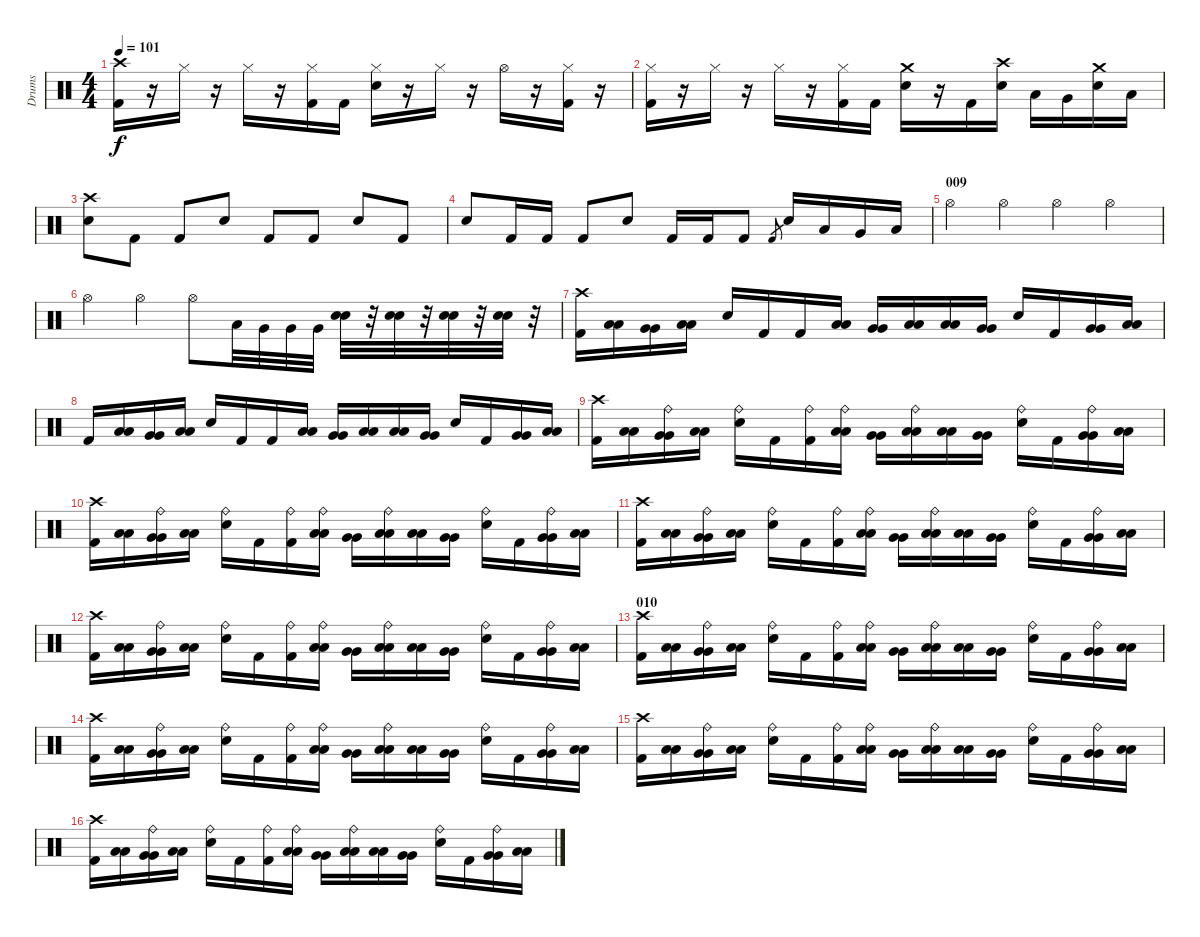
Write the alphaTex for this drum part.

\track ("Drums" "Drums") {instrument percussion}
\staff {score}
\articulation defaults
\ts (4 4)
\tempo 101
\clef neutral
\ks c
("Kick (hit) 2" "Crash high (hit)").16{dy f} r.16 "Hi-Hat (closed)".16 r.16 "Hi-Hat (closed)".16 r.16 ("Kick (hit) 2" "Hi-Hat (closed)").16 "Kick (hit) 2".16 ("Electric Snare (hit)" "Hi-Hat (closed)").16 r.16 "Hi-Hat (closed)".16 r.16 "Hi-Hat (open)".16 r.16 ("Kick (hit) 2" "Hi-Hat (closed)").16 r.16 |
("Kick (hit) 2" "Hi-Hat (closed)").16 r.16 "Hi-Hat (closed)".16 r.16 "Hi-Hat (closed)".16 r.16 ("Kick (hit) 2" "Hi-Hat (closed)").16 "Kick (hit) 2".16 ("Electric Snare (hit)" "Crash medium (hit)").16 r.16 "Kick (hit) 2".16 ("Electric Snare (hit)" "Crash high (hit)").16 "Low Floor Tom (hit)".16 "Very Low Tom (hit)".16 ("Electric Snare (hit)" "Crash medium (hit)").16 "Low Tom (hit)".16 |
("Electric Snare (hit)" "Crash high (hit)").8 "Kick (hit) 2".8 "Kick (hit) 2".8 "Electric Snare (hit)".8 "Kick (hit) 2".8 "Kick (hit) 2".8 "Electric Snare (hit)".8 "Kick (hit) 2".8 |
"Electric Snare (hit)".8 "Kick (hit) 2".16 "Kick (hit) 2".16 "Kick (hit) 2".8 "Electric Snare (hit)".8 "Kick (hit) 2".16 "Kick (hit) 2".16 "Kick (hit) 2".8 "Kick (hit) 2".8{gr} "Electric Snare (hit)".16 "Low Tom (hit)".16 "Very Low Tom (hit)".16 "Low Floor Tom (hit)".16 |
\section ("" "009")
"Hi-Hat (open)".4 "Hi-Hat (open)".4 "Hi-Hat (open)".4 "Hi-Hat (open)".4 |
"Hi-Hat (open)".4 "Hi-Hat (open)".4 "Hi-Hat (open)".8 "Low Floor Tom (hit)".32 "Very Low Tom (hit)".32 "Very Low Tom (hit)".32 "Very Low Tom (hit)".32 ("Electric Snare (hit)" "Snare (hit) 2").32 r.32 ("Electric Snare (hit)" "Snare (hit) 2").32 r.32 ("Electric Snare (hit)" "Snare (hit) 2").32 r.32 ("Electric Snare (hit)" "Snare (hit) 2").32 r.32 |
("Kick (hit) 2" "Crash high (hit)").16 ("Low Tom (hit)" "Low Tom (hit)").16 ("Very Low Tom (hit)" "Very Low Tom (hit)").16 ("Low Floor Tom (hit)" "Low Floor Tom (hit)").16 "Electric Snare (hit)".16 "Kick (hit) 2".16 "Kick (hit) 2".16 ("Low Tom (hit)" "Low Tom (hit)").16 ("Very Low Tom (hit)" "Very Low Tom (hit)").16 ("Low Floor Tom (hit)" "Low Floor Tom (hit)").16 ("Low Tom (hit)" "Low Tom (hit)").16 ("Very Low Tom (hit)" "Very Low Tom (hit)").16 "Electric Snare (hit)".16 "Kick (hit) 2".16 ("Very Low Tom (hit)" "Very Low Tom (hit)").16 ("Low Tom (hit)" "Low Tom (hit)").16 |
"Kick (hit) 2".16 ("Low Tom (hit)" "Low Tom (hit)").16 ("Very Low Tom (hit)" "Very Low Tom (hit)").16 ("Low Floor Tom (hit)" "Low Floor Tom (hit)").16 "Electric Snare (hit)".16 "Kick (hit) 2".16 "Kick (hit) 2".16 ("Low Tom (hit)" "Low Tom (hit)").16 ("Very Low Tom (hit)" "Very Low Tom (hit)").16 ("Low Floor Tom (hit)" "Low Floor Tom (hit)").16 ("Low Tom (hit)" "Low Tom (hit)").16 ("Very Low Tom (hit)" "Very Low Tom (hit)").16 "Electric Snare (hit)".16 "Kick (hit) 2".16 ("Very Low Tom (hit)" "Very Low Tom (hit)").16 ("Low Tom (hit)" "Low Floor Tom (hit)").16 |
("Kick (hit) 2" "Crash high (hit)").16 ("Low Tom (hit)" "Low Tom (hit)").16 ("Very Low Tom (hit)" "Very Low Tom (hit)" "Ride (bell)").16 ("Low Floor Tom (hit)" "Low Floor Tom (hit)").16 ("Electric Snare (hit)" "Ride (bell)").16 "Kick (hit) 2".16 ("Kick (hit) 2" "Ride (bell)").16 ("Low Tom (hit)" "Low Tom (hit)" "Ride (bell)").16 ("Very Low Tom (hit)" "Very Low Tom (hit)").16 ("Low Floor Tom (hit)" "Low Floor Tom (hit)" "Ride (bell)").16 ("Low Tom (hit)" "Low Tom (hit)").16 ("Very Low Tom (hit)" "Very Low Tom (hit)").16 ("Electric Snare (hit)" "Ride (bell)").16 "Kick (hit) 2".16 ("Very Low Tom (hit)" "Very Low Tom (hit)" "Ride (bell)").16 ("Low Tom (hit)" "Low Tom (hit)").16 |
("Kick (hit) 2" "Crash high (hit)").16 ("Low Tom (hit)" "Low Tom (hit)").16 ("Very Low Tom (hit)" "Very Low Tom (hit)" "Ride (bell)").16 ("Low Floor Tom (hit)" "Low Floor Tom (hit)").16 ("Electric Snare (hit)" "Ride (bell)").16 "Kick (hit) 2".16 ("Kick (hit) 2" "Ride (bell)").16 ("Low Tom (hit)" "Low Tom (hit)" "Ride (bell)").16 ("Very Low Tom (hit)" "Very Low Tom (hit)").16 ("Low Floor Tom (hit)" "Low Floor Tom (hit)" "Ride (bell)").16 ("Low Tom (hit)" "Low Tom (hit)").16 ("Very Low Tom (hit)" "Very Low Tom (hit)").16 ("Electric Snare (hit)" "Ride (bell)").16 "Kick (hit) 2".16 ("Very Low Tom (hit)" "Very Low Tom (hit)" "Ride (bell)").16 ("Low Tom (hit)" "Low Tom (hit)").16 |
("Kick (hit) 2" "Crash high (hit)").16 ("Low Tom (hit)" "Low Tom (hit)").16 ("Very Low Tom (hit)" "Very Low Tom (hit)" "Ride (bell)").16 ("Low Floor Tom (hit)" "Low Floor Tom (hit)").16 ("Electric Snare (hit)" "Ride (bell)").16 "Kick (hit) 2".16 ("Kick (hit) 2" "Ride (bell)").16 ("Low Tom (hit)" "Low Tom (hit)" "Ride (bell)").16 ("Very Low Tom (hit)" "Very Low Tom (hit)").16 ("Low Floor Tom (hit)" "Low Floor Tom (hit)" "Ride (bell)").16 ("Low Tom (hit)" "Low Tom (hit)").16 ("Very Low Tom (hit)" "Very Low Tom (hit)").16 ("Electric Snare (hit)" "Ride (bell)").16 "Kick (hit) 2".16 ("Very Low Tom (hit)" "Very Low Tom (hit)" "Ride (bell)").16 ("Low Tom (hit)" "Low Tom (hit)").16 |
("Kick (hit) 2" "Crash high (hit)").16 ("Low Tom (hit)" "Low Tom (hit)").16 ("Very Low Tom (hit)" "Very Low Tom (hit)" "Ride (bell)").16 ("Low Floor Tom (hit)" "Low Floor Tom (hit)").16 ("Electric Snare (hit)" "Ride (bell)").16 "Kick (hit) 2".16 ("Kick (hit) 2" "Ride (bell)").16 ("Low Tom (hit)" "Low Tom (hit)" "Ride (bell)").16 ("Very Low Tom (hit)" "Very Low Tom (hit)").16 ("Low Floor Tom (hit)" "Low Floor Tom (hit)" "Ride (bell)").16 ("Low Tom (hit)" "Low Tom (hit)").16 ("Very Low Tom (hit)" "Very Low Tom (hit)").16 ("Electric Snare (hit)" "Ride (bell)").16 "Kick (hit) 2".16 ("Very Low Tom (hit)" "Very Low Tom (hit)" "Ride (bell)").16 ("Low Tom (hit)" "Low Tom (hit)").16 |
\section ("" "010")
("Kick (hit) 2" "Crash high (hit)").16 ("Low Tom (hit)" "Low Tom (hit)").16 ("Very Low Tom (hit)" "Very Low Tom (hit)" "Ride (bell)").16 ("Low Floor Tom (hit)" "Low Floor Tom (hit)").16 ("Electric Snare (hit)" "Ride (bell)").16 "Kick (hit) 2".16 ("Kick (hit) 2" "Ride (bell)").16 ("Low Tom (hit)" "Low Tom (hit)" "Ride (bell)").16 ("Very Low Tom (hit)" "Very Low Tom (hit)").16 ("Low Floor Tom (hit)" "Low Floor Tom (hit)" "Ride (bell)").16 ("Low Tom (hit)" "Low Tom (hit)").16 ("Very Low Tom (hit)" "Very Low Tom (hit)").16 ("Electric Snare (hit)" "Ride (bell)").16 "Kick (hit) 2".16 ("Very Low Tom (hit)" "Very Low Tom (hit)" "Ride (bell)").16 ("Low Tom (hit)" "Low Tom (hit)").16 |
("Kick (hit) 2" "Crash high (hit)").16 ("Low Tom (hit)" "Low Tom (hit)").16 ("Very Low Tom (hit)" "Very Low Tom (hit)" "Ride (bell)").16 ("Low Floor Tom (hit)" "Low Floor Tom (hit)").16 ("Electric Snare (hit)" "Ride (bell)").16 "Kick (hit) 2".16 ("Kick (hit) 2" "Ride (bell)").16 ("Low Tom (hit)" "Low Tom (hit)" "Ride (bell)").16 ("Very Low Tom (hit)" "Very Low Tom (hit)").16 ("Low Floor Tom (hit)" "Low Floor Tom (hit)" "Ride (bell)").16 ("Low Tom (hit)" "Low Tom (hit)").16 ("Very Low Tom (hit)" "Very Low Tom (hit)").16 ("Electric Snare (hit)" "Ride (bell)").16 "Kick (hit) 2".16 ("Very Low Tom (hit)" "Very Low Tom (hit)" "Ride (bell)").16 ("Low Tom (hit)" "Low Tom (hit)").16 |
("Kick (hit) 2" "Crash high (hit)").16 ("Low Tom (hit)" "Low Tom (hit)").16 ("Very Low Tom (hit)" "Very Low Tom (hit)" "Ride (bell)").16 ("Low Floor Tom (hit)" "Low Floor Tom (hit)").16 ("Electric Snare (hit)" "Ride (bell)").16 "Kick (hit) 2".16 ("Kick (hit) 2" "Ride (bell)").16 ("Low Tom (hit)" "Low Tom (hit)" "Ride (bell)").16 ("Very Low Tom (hit)" "Very Low Tom (hit)").16 ("Low Floor Tom (hit)" "Low Floor Tom (hit)" "Ride (bell)").16 ("Low Tom (hit)" "Low Tom (hit)").16 ("Very Low Tom (hit)" "Very Low Tom (hit)").16 ("Electric Snare (hit)" "Ride (bell)").16 "Kick (hit) 2".16 ("Very Low Tom (hit)" "Very Low Tom (hit)" "Ride (bell)").16 ("Low Tom (hit)" "Low Tom (hit)").16 |
("Kick (hit) 2" "Crash high (hit)").16 ("Low Tom (hit)" "Low Tom (hit)").16 ("Very Low Tom (hit)" "Very Low Tom (hit)" "Ride (bell)").16 ("Low Floor Tom (hit)" "Low Floor Tom (hit)").16 ("Electric Snare (hit)" "Ride (bell)").16 "Kick (hit) 2".16 ("Kick (hit) 2" "Ride (bell)").16 ("Low Tom (hit)" "Low Tom (hit)" "Ride (bell)").16 ("Very Low Tom (hit)" "Very Low Tom (hit)").16 ("Low Floor Tom (hit)" "Low Floor Tom (hit)" "Ride (bell)").16 ("Low Tom (hit)" "Low Tom (hit)").16 ("Very Low Tom (hit)" "Very Low Tom (hit)").16 ("Electric Snare (hit)" "Ride (bell)").16 "Kick (hit) 2".16 ("Very Low Tom (hit)" "Very Low Tom (hit)" "Ride (bell)").16 ("Low Tom (hit)" "Low Tom (hit)").16
